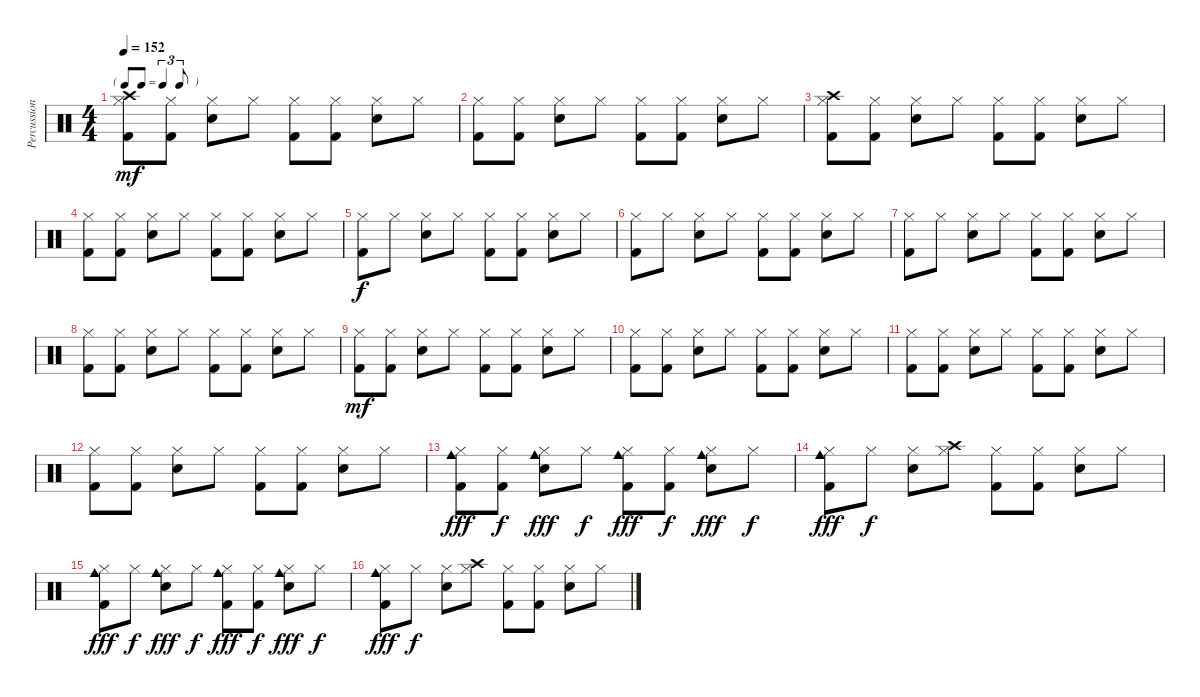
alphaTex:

\track ("Percussion" "Percussion") {instrument percussion}
\staff {score}
\articulation defaults
\ts (4 4)
\tf triplet8th
\tempo 152
\clef neutral
\ks c
("Crash high (hit)" "Hi-Hat (closed)" "Kick (hit) 2").8{dy mf} ("Hi-Hat (closed)" "Kick (hit) 2").8 ("Hi-Hat (closed)" "Electric Snare (hit)").8 "Hi-Hat (closed)".8 ("Hi-Hat (closed)" "Kick (hit) 2").8 ("Hi-Hat (closed)" "Kick (hit) 2").8 ("Hi-Hat (closed)" "Electric Snare (hit)").8 "Hi-Hat (closed)".8 |
("Hi-Hat (closed)" "Kick (hit) 2").8 ("Hi-Hat (closed)" "Kick (hit) 2").8 ("Hi-Hat (closed)" "Electric Snare (hit)").8 "Hi-Hat (closed)".8 ("Hi-Hat (closed)" "Kick (hit) 2").8 ("Hi-Hat (closed)" "Kick (hit) 2").8 ("Hi-Hat (closed)" "Electric Snare (hit)").8 "Hi-Hat (closed)".8 |
("Crash high (hit)" "Hi-Hat (closed)" "Kick (hit) 2").8 ("Hi-Hat (closed)" "Kick (hit) 2").8 ("Hi-Hat (closed)" "Electric Snare (hit)").8 "Hi-Hat (closed)".8 ("Hi-Hat (closed)" "Kick (hit) 2").8 ("Hi-Hat (closed)" "Kick (hit) 2").8 ("Hi-Hat (closed)" "Electric Snare (hit)").8 "Hi-Hat (closed)".8 |
("Hi-Hat (closed)" "Kick (hit) 2").8 ("Hi-Hat (closed)" "Kick (hit) 2").8 ("Hi-Hat (closed)" "Electric Snare (hit)").8 "Hi-Hat (closed)".8 ("Hi-Hat (closed)" "Kick (hit) 2").8 ("Hi-Hat (closed)" "Kick (hit) 2").8 ("Hi-Hat (closed)" "Electric Snare (hit)").8 "Hi-Hat (closed)".8 |
("Hi-Hat (closed)" "Kick (hit) 2").8{dy f} "Hi-Hat (closed)".8 ("Hi-Hat (closed)" "Electric Snare (hit)").8 "Hi-Hat (closed)".8 ("Hi-Hat (closed)" "Kick (hit) 2").8 ("Hi-Hat (closed)" "Kick (hit) 2").8 ("Hi-Hat (closed)" "Electric Snare (hit)").8 "Hi-Hat (closed)".8 |
("Hi-Hat (closed)" "Kick (hit) 2").8 "Hi-Hat (closed)".8 ("Hi-Hat (closed)" "Electric Snare (hit)").8 "Hi-Hat (closed)".8 ("Hi-Hat (closed)" "Kick (hit) 2").8 ("Hi-Hat (closed)" "Kick (hit) 2").8 ("Hi-Hat (closed)" "Electric Snare (hit)").8 "Hi-Hat (closed)".8 |
("Hi-Hat (closed)" "Kick (hit) 2").8 "Hi-Hat (closed)".8 ("Hi-Hat (closed)" "Electric Snare (hit)").8 "Hi-Hat (closed)".8 ("Hi-Hat (closed)" "Kick (hit) 2").8 ("Hi-Hat (closed)" "Kick (hit) 2").8 ("Hi-Hat (closed)" "Electric Snare (hit)").8 "Hi-Hat (closed)".8 |
("Hi-Hat (closed)" "Kick (hit) 2").8 ("Hi-Hat (closed)" "Kick (hit) 2").8 ("Hi-Hat (closed)" "Electric Snare (hit)").8 "Hi-Hat (closed)".8 ("Hi-Hat (closed)" "Kick (hit) 2").8 ("Hi-Hat (closed)" "Kick (hit) 2").8 ("Hi-Hat (closed)" "Electric Snare (hit)").8 "Hi-Hat (closed)".8 |
("Hi-Hat (closed)" "Kick (hit) 2").8{dy mf} ("Hi-Hat (closed)" "Kick (hit) 2").8 ("Hi-Hat (closed)" "Electric Snare (hit)").8 "Hi-Hat (closed)".8 ("Hi-Hat (closed)" "Kick (hit) 2").8 ("Hi-Hat (closed)" "Kick (hit) 2").8 ("Hi-Hat (closed)" "Electric Snare (hit)").8 "Hi-Hat (closed)".8 |
("Hi-Hat (closed)" "Kick (hit) 2").8 ("Hi-Hat (closed)" "Kick (hit) 2").8 ("Hi-Hat (closed)" "Electric Snare (hit)").8 "Hi-Hat (closed)".8 ("Hi-Hat (closed)" "Kick (hit) 2").8 ("Hi-Hat (closed)" "Kick (hit) 2").8 ("Hi-Hat (closed)" "Electric Snare (hit)").8 "Hi-Hat (closed)".8 |
("Hi-Hat (closed)" "Kick (hit) 2").8 ("Hi-Hat (closed)" "Kick (hit) 2").8 ("Hi-Hat (closed)" "Electric Snare (hit)").8 "Hi-Hat (closed)".8 ("Hi-Hat (closed)" "Kick (hit) 2").8 ("Hi-Hat (closed)" "Kick (hit) 2").8 ("Hi-Hat (closed)" "Electric Snare (hit)").8 "Hi-Hat (closed)".8 |
("Hi-Hat (closed)" "Kick (hit) 2").8 ("Hi-Hat (closed)" "Kick (hit) 2").8 ("Hi-Hat (closed)" "Electric Snare (hit)").8 "Hi-Hat (closed)".8 ("Hi-Hat (closed)" "Kick (hit) 2").8 ("Hi-Hat (closed)" "Kick (hit) 2").8 ("Hi-Hat (closed)" "Electric Snare (hit)").8 "Hi-Hat (closed)".8 |
("Cowbell medium (hit)" "Hi-Hat (closed)" "Kick (hit) 2").8{dy fff} ("Hi-Hat (closed)" "Kick (hit) 2").8{dy f} ("Cowbell medium (hit)" "Hi-Hat (closed)" "Electric Snare (hit)").8{dy fff} "Hi-Hat (closed)".8{dy f} ("Cowbell medium (hit)" "Hi-Hat (closed)" "Kick (hit) 2").8{dy fff} ("Hi-Hat (closed)" "Kick (hit) 2").8{dy f} ("Cowbell medium (hit)" "Hi-Hat (closed)" "Electric Snare (hit)").8{dy fff} "Hi-Hat (closed)".8{dy f} |
("Cowbell medium (hit)" "Hi-Hat (closed)" "Kick (hit) 2").8{dy fff} "Hi-Hat (closed)".8{dy f} ("Hi-Hat (closed)" "Electric Snare (hit)").8 ("Crash high (hit)" "Hi-Hat (closed)").8 ("Hi-Hat (closed)" "Kick (hit) 2").8 ("Hi-Hat (closed)" "Kick (hit) 2").8 ("Hi-Hat (closed)" "Electric Snare (hit)").8 "Hi-Hat (closed)".8 |
("Cowbell medium (hit)" "Hi-Hat (closed)" "Kick (hit) 2").8{dy fff} "Hi-Hat (closed)".8{dy f} ("Cowbell medium (hit)" "Hi-Hat (closed)" "Electric Snare (hit)").8{dy fff} "Hi-Hat (closed)".8{dy f} ("Cowbell medium (hit)" "Hi-Hat (closed)" "Kick (hit) 2").8{dy fff} ("Hi-Hat (closed)" "Kick (hit) 2").8{dy f} ("Cowbell medium (hit)" "Hi-Hat (closed)" "Electric Snare (hit)").8{dy fff} "Hi-Hat (closed)".8{dy f} |
("Cowbell medium (hit)" "Hi-Hat (closed)" "Kick (hit) 2").8{dy fff} "Hi-Hat (closed)".8{dy f} ("Hi-Hat (closed)" "Electric Snare (hit)").8 ("Crash high (hit)" "Hi-Hat (closed)").8 ("Hi-Hat (closed)" "Kick (hit) 2").8 ("Hi-Hat (closed)" "Kick (hit) 2").8 ("Hi-Hat (closed)" "Electric Snare (hit)").8 "Hi-Hat (closed)".8
